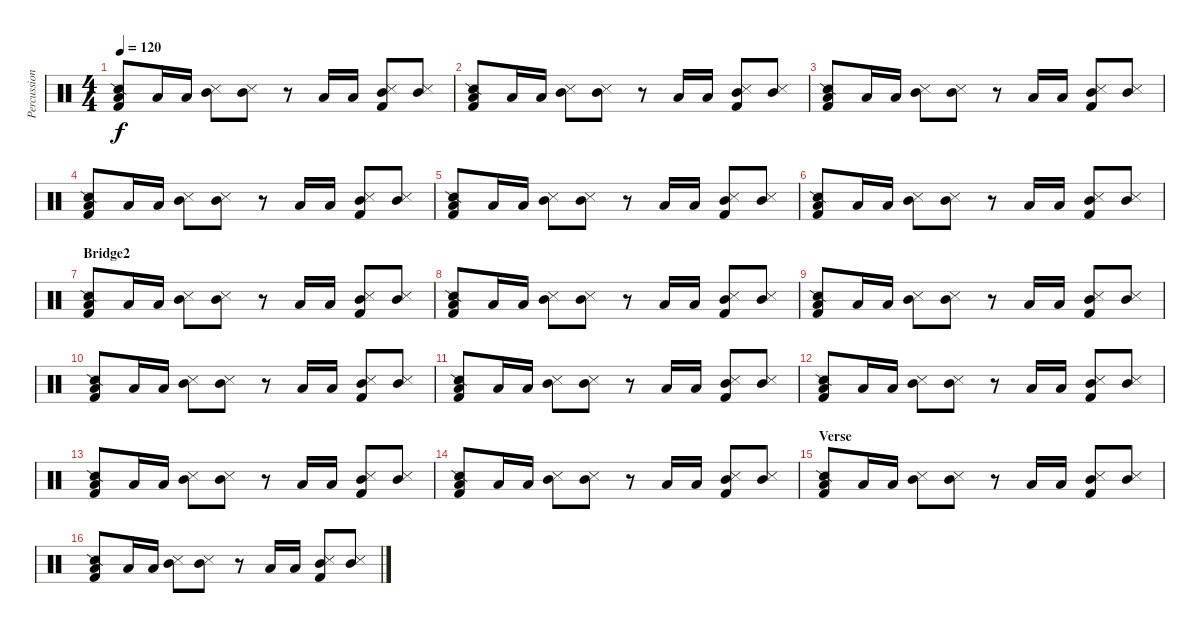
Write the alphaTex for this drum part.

\track ("Percussion" "Percussion") {instrument percussion}
\staff {score}
\articulation defaults
\ts (4 4)
\tempo 120
\clef neutral
\ks c
("Kick (hit) 2" "Snare (side stick) 2" "Low Floor Tom (hit)").8{dy f} "Low Tom (hit)".16 "Low Tom (hit)".16 ("Snare (side stick) 3" "Mid Tom (hit)").8 ("Snare (side stick) 3" "Mid Tom (hit)").8 r.8 "Low Tom (hit)".16 "Low Tom (hit)".16 ("Kick (hit) 2" "Snare (side stick) 3" "Mid Tom (hit)").8 ("Snare (side stick) 3" "Mid Tom (hit)").8 |
("Kick (hit) 2" "Snare (side stick) 2" "Low Floor Tom (hit)").8 "Low Tom (hit)".16 "Low Tom (hit)".16 ("Snare (side stick) 3" "Mid Tom (hit)").8 ("Snare (side stick) 3" "Mid Tom (hit)").8 r.8 "Low Tom (hit)".16 "Low Tom (hit)".16 ("Kick (hit) 2" "Snare (side stick) 3" "Mid Tom (hit)").8 ("Snare (side stick) 3" "Mid Tom (hit)").8 |
("Kick (hit) 2" "Snare (side stick) 2" "Low Floor Tom (hit)").8 "Low Tom (hit)".16 "Low Tom (hit)".16 ("Snare (side stick) 3" "Mid Tom (hit)").8 ("Snare (side stick) 3" "Mid Tom (hit)").8 r.8 "Low Tom (hit)".16 "Low Tom (hit)".16 ("Kick (hit) 2" "Snare (side stick) 3" "Mid Tom (hit)").8 ("Snare (side stick) 3" "Mid Tom (hit)").8 |
("Kick (hit) 2" "Snare (side stick) 2" "Low Floor Tom (hit)").8 "Low Tom (hit)".16 "Low Tom (hit)".16 ("Snare (side stick) 3" "Mid Tom (hit)").8 ("Snare (side stick) 3" "Mid Tom (hit)").8 r.8 "Low Tom (hit)".16 "Low Tom (hit)".16 ("Kick (hit) 2" "Snare (side stick) 3" "Mid Tom (hit)").8 ("Snare (side stick) 3" "Mid Tom (hit)").8 |
("Kick (hit) 2" "Snare (side stick) 2" "Low Floor Tom (hit)").8 "Low Tom (hit)".16 "Low Tom (hit)".16 ("Snare (side stick) 3" "Mid Tom (hit)").8 ("Snare (side stick) 3" "Mid Tom (hit)").8 r.8 "Low Tom (hit)".16 "Low Tom (hit)".16 ("Kick (hit) 2" "Snare (side stick) 3" "Mid Tom (hit)").8 ("Snare (side stick) 3" "Mid Tom (hit)").8 |
("Kick (hit) 2" "Snare (side stick) 2" "Low Floor Tom (hit)").8 "Low Tom (hit)".16 "Low Tom (hit)".16 ("Snare (side stick) 3" "Mid Tom (hit)").8 ("Snare (side stick) 3" "Mid Tom (hit)").8 r.8 "Low Tom (hit)".16 "Low Tom (hit)".16 ("Kick (hit) 2" "Snare (side stick) 3" "Mid Tom (hit)").8 ("Snare (side stick) 3" "Mid Tom (hit)").8 |
\section ("" "Bridge2")
("Kick (hit) 2" "Snare (side stick) 2" "Low Floor Tom (hit)").8 "Low Tom (hit)".16 "Low Tom (hit)".16 ("Snare (side stick) 3" "Mid Tom (hit)").8 ("Snare (side stick) 3" "Mid Tom (hit)").8 r.8 "Low Tom (hit)".16 "Low Tom (hit)".16 ("Kick (hit) 2" "Snare (side stick) 3" "Mid Tom (hit)").8 ("Snare (side stick) 3" "Mid Tom (hit)").8 |
("Kick (hit) 2" "Snare (side stick) 2" "Low Floor Tom (hit)").8 "Low Tom (hit)".16 "Low Tom (hit)".16 ("Snare (side stick) 3" "Mid Tom (hit)").8 ("Snare (side stick) 3" "Mid Tom (hit)").8 r.8 "Low Tom (hit)".16 "Low Tom (hit)".16 ("Kick (hit) 2" "Snare (side stick) 3" "Mid Tom (hit)").8 ("Snare (side stick) 3" "Mid Tom (hit)").8 |
("Kick (hit) 2" "Snare (side stick) 2" "Low Floor Tom (hit)").8 "Low Tom (hit)".16 "Low Tom (hit)".16 ("Snare (side stick) 3" "Mid Tom (hit)").8 ("Snare (side stick) 3" "Mid Tom (hit)").8 r.8 "Low Tom (hit)".16 "Low Tom (hit)".16 ("Kick (hit) 2" "Snare (side stick) 3" "Mid Tom (hit)").8 ("Snare (side stick) 3" "Mid Tom (hit)").8 |
("Kick (hit) 2" "Snare (side stick) 2" "Low Floor Tom (hit)").8 "Low Tom (hit)".16 "Low Tom (hit)".16 ("Snare (side stick) 3" "Mid Tom (hit)").8 ("Snare (side stick) 3" "Mid Tom (hit)").8 r.8 "Low Tom (hit)".16 "Low Tom (hit)".16 ("Kick (hit) 2" "Snare (side stick) 3" "Mid Tom (hit)").8 ("Snare (side stick) 3" "Mid Tom (hit)").8 |
("Kick (hit) 2" "Snare (side stick) 2" "Low Floor Tom (hit)").8 "Low Tom (hit)".16 "Low Tom (hit)".16 ("Snare (side stick) 3" "Mid Tom (hit)").8 ("Snare (side stick) 3" "Mid Tom (hit)").8 r.8 "Low Tom (hit)".16 "Low Tom (hit)".16 ("Kick (hit) 2" "Snare (side stick) 3" "Mid Tom (hit)").8 ("Snare (side stick) 3" "Mid Tom (hit)").8 |
("Kick (hit) 2" "Snare (side stick) 2" "Low Floor Tom (hit)").8 "Low Tom (hit)".16 "Low Tom (hit)".16 ("Snare (side stick) 3" "Mid Tom (hit)").8 ("Snare (side stick) 3" "Mid Tom (hit)").8 r.8 "Low Tom (hit)".16 "Low Tom (hit)".16 ("Kick (hit) 2" "Snare (side stick) 3" "Mid Tom (hit)").8 ("Snare (side stick) 3" "Mid Tom (hit)").8 |
("Kick (hit) 2" "Snare (side stick) 2" "Low Floor Tom (hit)").8 "Low Tom (hit)".16 "Low Tom (hit)".16 ("Snare (side stick) 3" "Mid Tom (hit)").8 ("Snare (side stick) 3" "Mid Tom (hit)").8 r.8 "Low Tom (hit)".16 "Low Tom (hit)".16 ("Kick (hit) 2" "Snare (side stick) 3" "Mid Tom (hit)").8 ("Snare (side stick) 3" "Mid Tom (hit)").8 |
("Kick (hit) 2" "Snare (side stick) 2" "Low Floor Tom (hit)").8 "Low Tom (hit)".16 "Low Tom (hit)".16 ("Snare (side stick) 3" "Mid Tom (hit)").8 ("Snare (side stick) 3" "Mid Tom (hit)").8 r.8 "Low Tom (hit)".16 "Low Tom (hit)".16 ("Kick (hit) 2" "Snare (side stick) 3" "Mid Tom (hit)").8 ("Snare (side stick) 3" "Mid Tom (hit)").8 |
\section ("" "Verse")
("Kick (hit) 2" "Snare (side stick) 2" "Low Floor Tom (hit)").8 "Low Tom (hit)".16 "Low Tom (hit)".16 ("Snare (side stick) 3" "Mid Tom (hit)").8 ("Snare (side stick) 3" "Mid Tom (hit)").8 r.8 "Low Tom (hit)".16 "Low Tom (hit)".16 ("Kick (hit) 2" "Snare (side stick) 3" "Mid Tom (hit)").8 ("Snare (side stick) 3" "Mid Tom (hit)").8 |
("Kick (hit) 2" "Snare (side stick) 2" "Low Floor Tom (hit)").8 "Low Tom (hit)".16 "Low Tom (hit)".16 ("Snare (side stick) 3" "Mid Tom (hit)").8 ("Snare (side stick) 3" "Mid Tom (hit)").8 r.8 "Low Tom (hit)".16 "Low Tom (hit)".16 ("Kick (hit) 2" "Snare (side stick) 3" "Mid Tom (hit)").8 ("Snare (side stick) 3" "Mid Tom (hit)").8
